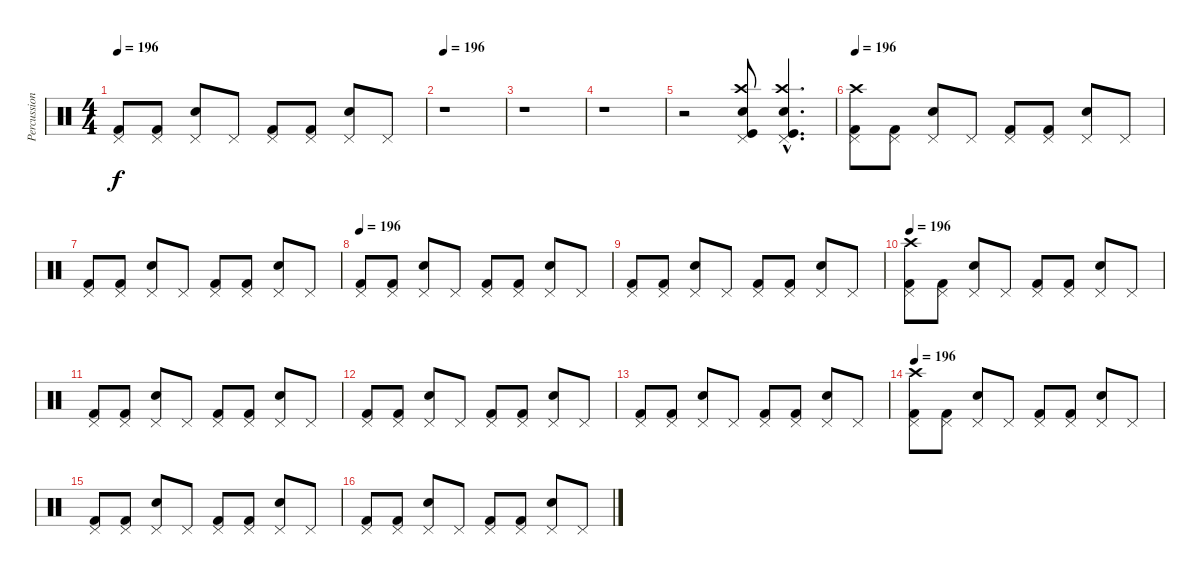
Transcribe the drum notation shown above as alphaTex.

\track ("Percussion" "Percussion") {instrument percussion}
\staff {score}
\articulation defaults
\ts (4 4)
\tempo 196
\clef neutral
\ks c
("Pedal Hi-Hat (hit)" "Kick (hit) 2").8{dy f} ("Pedal Hi-Hat (hit)" "Kick (hit) 2").8 ("Pedal Hi-Hat (hit)" "Snare (hit) 2").8 "Pedal Hi-Hat (hit)".8 ("Pedal Hi-Hat (hit)" "Kick (hit) 2").8 ("Pedal Hi-Hat (hit)" "Kick (hit) 2").8 ("Pedal Hi-Hat (hit)" "Snare (hit) 2").8 "Pedal Hi-Hat (hit)".8 |
\tempo 196
r.1 |
r.1 |
r.1 |
r.2 ("Crash high (hit)" "Kick (hit)" "Snare (hit) 2" "Pedal Hi-Hat (hit)").8 ("Crash high (hit)"{hac} "Kick (hit)"{hac} "Snare (hit) 2"{hac} "Pedal Hi-Hat (hit)"{hac}).4{d} |
\tempo 196
("Pedal Hi-Hat (hit)" "Kick (hit) 2" "Crash high (hit)").8 ("Pedal Hi-Hat (hit)" "Kick (hit) 2").8 ("Pedal Hi-Hat (hit)" "Snare (hit) 2").8 "Pedal Hi-Hat (hit)".8 ("Pedal Hi-Hat (hit)" "Kick (hit) 2").8 ("Pedal Hi-Hat (hit)" "Kick (hit) 2").8 ("Pedal Hi-Hat (hit)" "Snare (hit) 2").8 "Pedal Hi-Hat (hit)".8 |
("Pedal Hi-Hat (hit)" "Kick (hit) 2").8 ("Pedal Hi-Hat (hit)" "Kick (hit) 2").8 ("Pedal Hi-Hat (hit)" "Snare (hit) 2").8 "Pedal Hi-Hat (hit)".8 ("Pedal Hi-Hat (hit)" "Kick (hit) 2").8 ("Pedal Hi-Hat (hit)" "Kick (hit) 2").8 ("Pedal Hi-Hat (hit)" "Snare (hit) 2").8 "Pedal Hi-Hat (hit)".8 |
\tempo 196
("Pedal Hi-Hat (hit)" "Kick (hit) 2").8 ("Pedal Hi-Hat (hit)" "Kick (hit) 2").8 ("Pedal Hi-Hat (hit)" "Snare (hit) 2").8 "Pedal Hi-Hat (hit)".8 ("Pedal Hi-Hat (hit)" "Kick (hit) 2").8 ("Pedal Hi-Hat (hit)" "Kick (hit) 2").8 ("Pedal Hi-Hat (hit)" "Snare (hit) 2").8 "Pedal Hi-Hat (hit)".8 |
("Pedal Hi-Hat (hit)" "Kick (hit) 2").8 ("Pedal Hi-Hat (hit)" "Kick (hit) 2").8 ("Pedal Hi-Hat (hit)" "Snare (hit) 2").8 "Pedal Hi-Hat (hit)".8 ("Pedal Hi-Hat (hit)" "Kick (hit) 2").8 ("Pedal Hi-Hat (hit)" "Kick (hit) 2").8 ("Pedal Hi-Hat (hit)" "Snare (hit) 2").8 "Pedal Hi-Hat (hit)".8 |
\tempo 196
("Pedal Hi-Hat (hit)" "Kick (hit) 2" "Crash high (hit)").8 ("Pedal Hi-Hat (hit)" "Kick (hit) 2").8 ("Pedal Hi-Hat (hit)" "Snare (hit) 2").8 "Pedal Hi-Hat (hit)".8 ("Pedal Hi-Hat (hit)" "Kick (hit) 2").8 ("Pedal Hi-Hat (hit)" "Kick (hit) 2").8 ("Pedal Hi-Hat (hit)" "Snare (hit) 2").8 "Pedal Hi-Hat (hit)".8 |
("Pedal Hi-Hat (hit)" "Kick (hit) 2").8 ("Pedal Hi-Hat (hit)" "Kick (hit) 2").8 ("Pedal Hi-Hat (hit)" "Snare (hit) 2").8 "Pedal Hi-Hat (hit)".8 ("Pedal Hi-Hat (hit)" "Kick (hit) 2").8 ("Pedal Hi-Hat (hit)" "Kick (hit) 2").8 ("Pedal Hi-Hat (hit)" "Snare (hit) 2").8 "Pedal Hi-Hat (hit)".8 |
("Pedal Hi-Hat (hit)" "Kick (hit) 2").8 ("Pedal Hi-Hat (hit)" "Kick (hit) 2").8 ("Pedal Hi-Hat (hit)" "Snare (hit) 2").8 "Pedal Hi-Hat (hit)".8 ("Pedal Hi-Hat (hit)" "Kick (hit) 2").8 ("Pedal Hi-Hat (hit)" "Kick (hit) 2").8 ("Pedal Hi-Hat (hit)" "Snare (hit) 2").8 "Pedal Hi-Hat (hit)".8 |
("Pedal Hi-Hat (hit)" "Kick (hit) 2").8 ("Pedal Hi-Hat (hit)" "Kick (hit) 2").8 ("Pedal Hi-Hat (hit)" "Snare (hit) 2").8 "Pedal Hi-Hat (hit)".8 ("Pedal Hi-Hat (hit)" "Kick (hit) 2").8 ("Pedal Hi-Hat (hit)" "Kick (hit) 2").8 ("Pedal Hi-Hat (hit)" "Snare (hit) 2").8 "Pedal Hi-Hat (hit)".8 |
\tempo 196
("Pedal Hi-Hat (hit)" "Kick (hit) 2" "Crash high (hit)").8 ("Pedal Hi-Hat (hit)" "Kick (hit) 2").8 ("Pedal Hi-Hat (hit)" "Snare (hit) 2").8 "Pedal Hi-Hat (hit)".8 ("Pedal Hi-Hat (hit)" "Kick (hit) 2").8 ("Pedal Hi-Hat (hit)" "Kick (hit) 2").8 ("Pedal Hi-Hat (hit)" "Snare (hit) 2").8 "Pedal Hi-Hat (hit)".8 |
("Pedal Hi-Hat (hit)" "Kick (hit) 2").8 ("Pedal Hi-Hat (hit)" "Kick (hit) 2").8 ("Pedal Hi-Hat (hit)" "Snare (hit) 2").8 "Pedal Hi-Hat (hit)".8 ("Pedal Hi-Hat (hit)" "Kick (hit) 2").8 ("Pedal Hi-Hat (hit)" "Kick (hit) 2").8 ("Pedal Hi-Hat (hit)" "Snare (hit) 2").8 "Pedal Hi-Hat (hit)".8 |
("Pedal Hi-Hat (hit)" "Kick (hit) 2").8 ("Pedal Hi-Hat (hit)" "Kick (hit) 2").8 ("Pedal Hi-Hat (hit)" "Snare (hit) 2").8 "Pedal Hi-Hat (hit)".8 ("Pedal Hi-Hat (hit)" "Kick (hit) 2").8 ("Pedal Hi-Hat (hit)" "Kick (hit) 2").8 ("Pedal Hi-Hat (hit)" "Snare (hit) 2").8 "Pedal Hi-Hat (hit)".8
